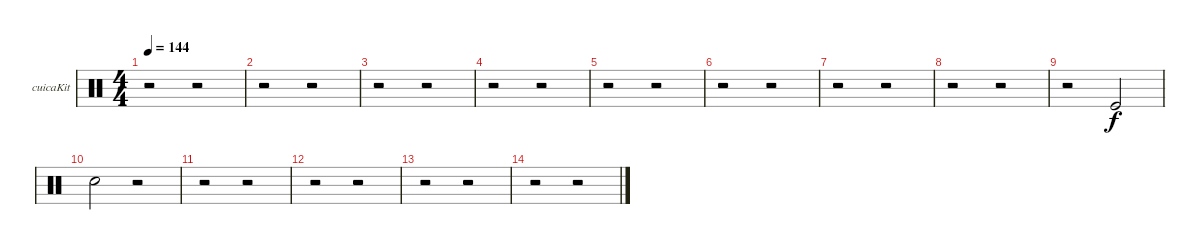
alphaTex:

\bracketExtendMode groupsimilarinstruments
\firstSystemTrackNameOrientation horizontal
\otherSystemsTrackNameOrientation horizontal
\track ("Cuica" "cuicaKit") {instrument percussion}
\staff {score}
\articulation defaults
\ts (4 4)
\tempo 144
\clef neutral
\ks c
r.2{dy f} r.2 |
r.2 r.2 |
r.2 r.2 |
r.2 r.2 |
r.2 r.2 |
r.2 r.2 |
r.2 r.2 |
r.2 r.2 |
r.2 "Kick (hit)".2 |
"Snare (hit) 2".2 r.2 |
r.2 r.2 |
r.2 r.2 |
r.2 r.2 |
r.2 r.2
